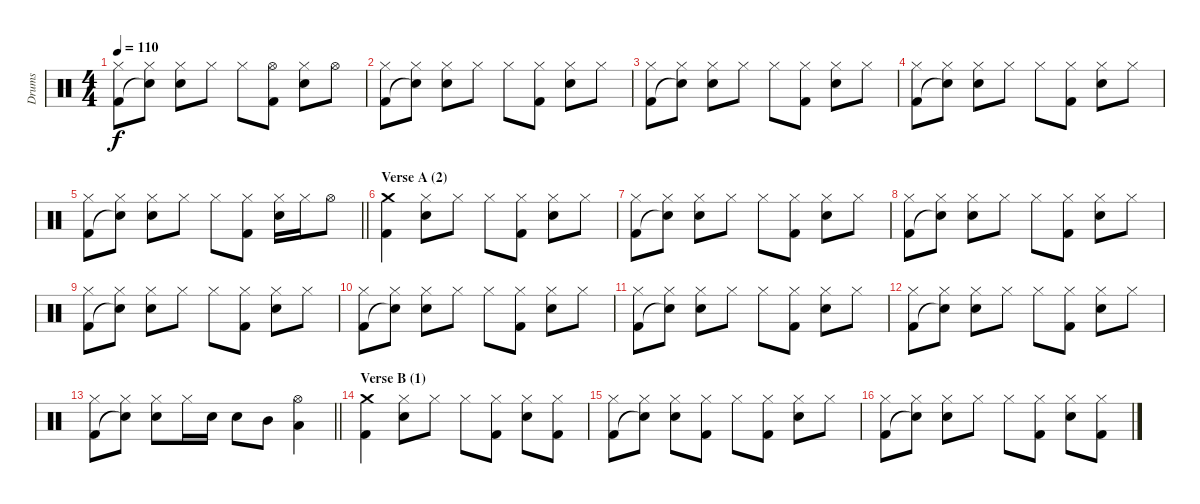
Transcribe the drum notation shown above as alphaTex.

\track ("Drums" "Drums") {instrument percussion}
\staff {score}
\articulation defaults
\ts (4 4)
\tempo 110
\clef neutral
\ks c
("Hi-Hat (closed)" "Kick (hit) 2").8{dy f} ("Hi-Hat (closed)" "Snare (hit)"{t}).8 ("Hi-Hat (closed)" "Electric Snare (hit)").8 "Hi-Hat (closed)".8 "Hi-Hat (closed)".8 ("Hi-Hat (open)" "Kick (hit) 2").8 ("Hi-Hat (closed)" "Electric Snare (hit)").8 "Hi-Hat (open)".8 |
("Hi-Hat (closed)" "Kick (hit) 2").8 ("Hi-Hat (closed)" "Snare (hit)"{t}).8 ("Hi-Hat (closed)" "Electric Snare (hit)").8 "Hi-Hat (closed)".8 "Hi-Hat (closed)".8 ("Hi-Hat (closed)" "Kick (hit) 2").8 ("Hi-Hat (closed)" "Electric Snare (hit)").8 "Hi-Hat (closed)".8 |
("Hi-Hat (closed)" "Kick (hit) 2").8 ("Hi-Hat (closed)" "Snare (hit)"{t}).8 ("Hi-Hat (closed)" "Electric Snare (hit)").8 "Hi-Hat (closed)".8 "Hi-Hat (closed)".8 ("Hi-Hat (closed)" "Kick (hit) 2").8 ("Hi-Hat (closed)" "Electric Snare (hit)").8 "Hi-Hat (closed)".8 |
("Hi-Hat (closed)" "Kick (hit) 2").8 ("Hi-Hat (closed)" "Snare (hit)"{t}).8 ("Hi-Hat (closed)" "Electric Snare (hit)").8 "Hi-Hat (closed)".8 "Hi-Hat (closed)".8 ("Hi-Hat (closed)" "Kick (hit) 2").8 ("Hi-Hat (closed)" "Electric Snare (hit)").8 "Hi-Hat (closed)".8 |
\barLineRight lightlight
("Hi-Hat (closed)" "Kick (hit) 2").8 ("Hi-Hat (closed)" "Snare (hit)"{t}).8 ("Hi-Hat (closed)" "Electric Snare (hit)").8 "Hi-Hat (closed)".8 "Hi-Hat (closed)".8 ("Hi-Hat (closed)" "Kick (hit) 2").8 ("Hi-Hat (closed)" "Electric Snare (hit)").16 "Hi-Hat (closed)".16 "Hi-Hat (open)".8 |
\section ("" "Verse A (2)")
("Crash medium (hit)" "Kick (hit) 2").4 ("Hi-Hat (closed)" "Electric Snare (hit)").8 "Hi-Hat (closed)".8 "Hi-Hat (closed)".8 ("Hi-Hat (closed)" "Kick (hit) 2").8 ("Hi-Hat (closed)" "Electric Snare (hit)").8 "Hi-Hat (closed)".8 |
("Hi-Hat (closed)" "Kick (hit) 2").8 ("Hi-Hat (closed)" "Snare (hit)"{t}).8 ("Hi-Hat (closed)" "Electric Snare (hit)").8 "Hi-Hat (closed)".8 "Hi-Hat (closed)".8 ("Hi-Hat (closed)" "Kick (hit) 2").8 ("Hi-Hat (closed)" "Electric Snare (hit)").8 "Hi-Hat (closed)".8 |
("Hi-Hat (closed)" "Kick (hit) 2").8 ("Hi-Hat (closed)" "Snare (hit)"{t}).8 ("Hi-Hat (closed)" "Electric Snare (hit)").8 "Hi-Hat (closed)".8 "Hi-Hat (closed)".8 ("Hi-Hat (closed)" "Kick (hit) 2").8 ("Hi-Hat (closed)" "Electric Snare (hit)").8 "Hi-Hat (closed)".8 |
("Hi-Hat (closed)" "Kick (hit) 2").8 ("Hi-Hat (closed)" "Snare (hit)"{t}).8 ("Hi-Hat (closed)" "Electric Snare (hit)").8 "Hi-Hat (closed)".8 "Hi-Hat (closed)".8 ("Hi-Hat (closed)" "Kick (hit) 2").8 ("Hi-Hat (closed)" "Electric Snare (hit)").8 "Hi-Hat (closed)".8 |
("Hi-Hat (closed)" "Kick (hit) 2").8 ("Hi-Hat (closed)" "Snare (hit)"{t}).8 ("Hi-Hat (closed)" "Electric Snare (hit)").8 "Hi-Hat (closed)".8 "Hi-Hat (closed)".8 ("Hi-Hat (closed)" "Kick (hit) 2").8 ("Hi-Hat (closed)" "Electric Snare (hit)").8 "Hi-Hat (closed)".8 |
("Hi-Hat (closed)" "Kick (hit) 2").8 ("Hi-Hat (closed)" "Snare (hit)"{t}).8 ("Hi-Hat (closed)" "Electric Snare (hit)").8 "Hi-Hat (closed)".8 "Hi-Hat (closed)".8 ("Hi-Hat (closed)" "Kick (hit) 2").8 ("Hi-Hat (closed)" "Electric Snare (hit)").8 "Hi-Hat (closed)".8 |
("Hi-Hat (closed)" "Kick (hit) 2").8 ("Hi-Hat (closed)" "Snare (hit)"{t}).8 ("Hi-Hat (closed)" "Electric Snare (hit)").8 "Hi-Hat (closed)".8 "Hi-Hat (closed)".8 ("Hi-Hat (closed)" "Kick (hit) 2").8 ("Hi-Hat (closed)" "Electric Snare (hit)").8 "Hi-Hat (closed)".8 |
\barLineRight lightlight
("Hi-Hat (closed)" "Kick (hit) 2").8 ("Hi-Hat (closed)" "Snare (hit)"{t}).8 ("Hi-Hat (closed)" "Electric Snare (hit)").8 "Hi-Hat (closed)".16 "Electric Snare (hit)".16 "Electric Snare (hit)".8 "Mid Tom (hit)".8 ("Hi-Hat (open)" "Low Floor Tom (hit)").4 |
\section ("" "Verse B (1)")
("Crash medium (hit)" "Kick (hit) 2").4 ("Hi-Hat (closed)" "Electric Snare (hit)").8 "Hi-Hat (closed)".8 "Hi-Hat (closed)".8 ("Hi-Hat (closed)" "Kick (hit) 2").8 ("Hi-Hat (closed)" "Electric Snare (hit)").8 ("Hi-Hat (closed)" "Kick (hit) 2").8 |
("Hi-Hat (closed)" "Kick (hit) 2").8 ("Hi-Hat (closed)" "Snare (hit)"{t}).8 ("Hi-Hat (closed)" "Electric Snare (hit)").8 ("Hi-Hat (closed)" "Kick (hit) 2").8 "Hi-Hat (closed)".8 ("Hi-Hat (closed)" "Kick (hit) 2").8 ("Hi-Hat (closed)" "Electric Snare (hit)").8 "Hi-Hat (closed)".8 |
("Hi-Hat (closed)" "Kick (hit) 2").8 ("Hi-Hat (closed)" "Snare (hit)"{t}).8 ("Hi-Hat (closed)" "Electric Snare (hit)").8 "Hi-Hat (closed)".8 "Hi-Hat (closed)".8 ("Hi-Hat (closed)" "Kick (hit) 2").8 ("Hi-Hat (closed)" "Electric Snare (hit)").8 ("Hi-Hat (closed)" "Kick (hit) 2").8
